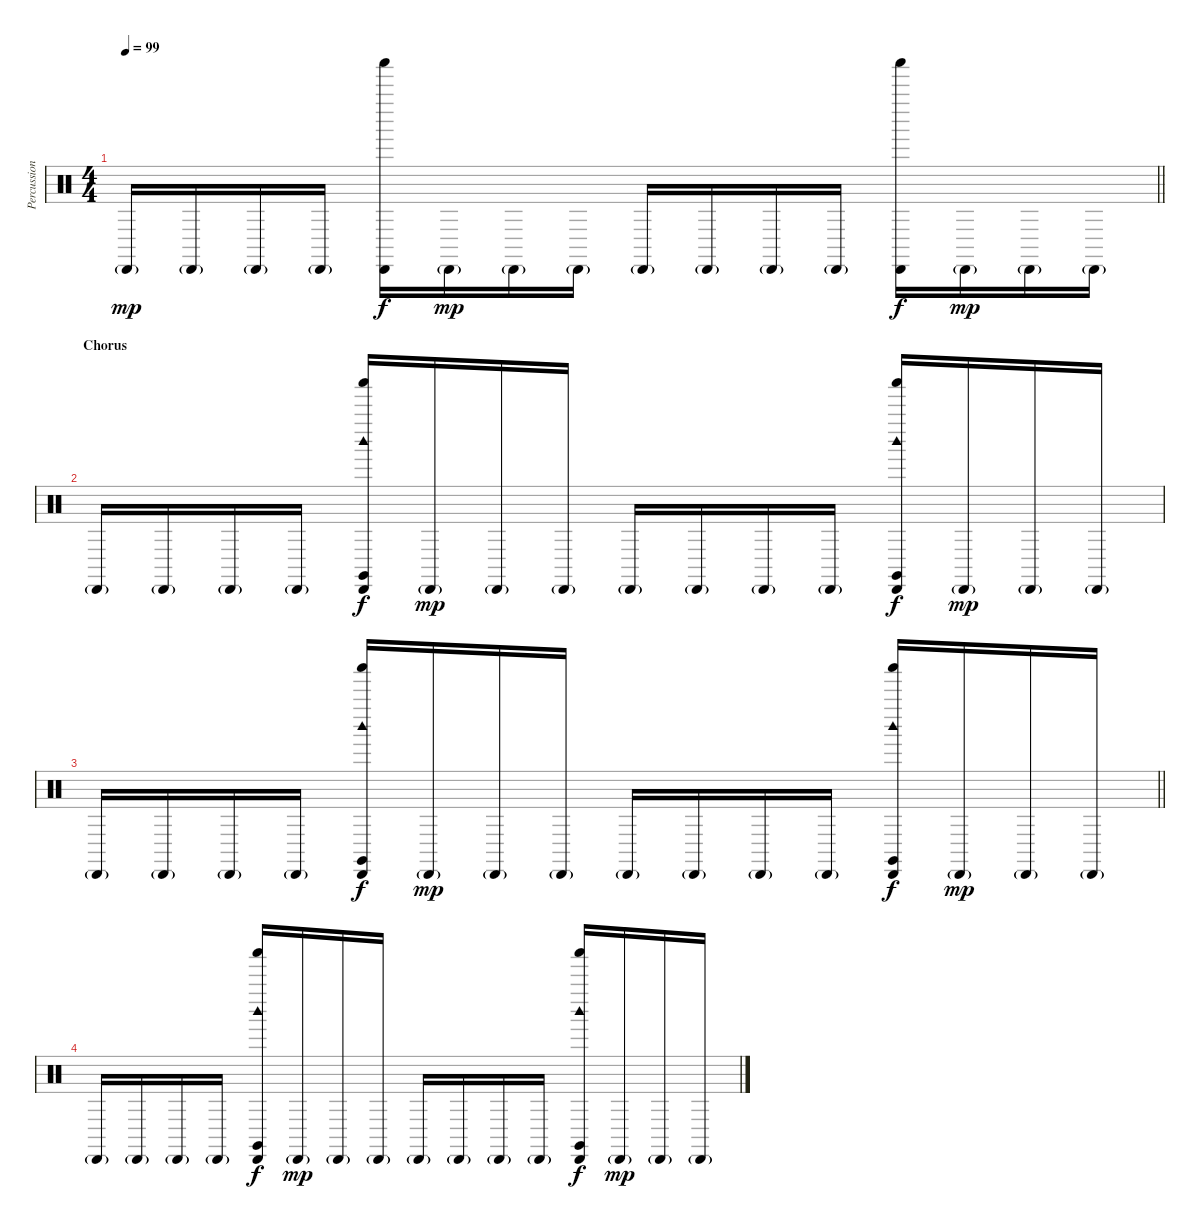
\track ("Percussion" "Percussion") {instrument percussion}
\staff {score}
\articulation defaults
\ts (4 4)
\tempo 99
\clef neutral
\barLineRight lightlight
\ks c "Cabasa (hit)"{g}.16{dy mp} "Cabasa (hit)"{g}.16 "Cabasa (hit)"{g}.16 "Cabasa (hit)"{g}.16
("Cabasa (hit)" "Shaker (hit)").16{dy f} "Cabasa (hit)"{g}.16{dy mp} "Cabasa (hit)"{g}.16 "Cabasa (hit)"{g}.16 "Cabasa (hit)"{g}.16 "Cabasa (hit)"{g}.16 "Cabasa (hit)"{g}.16 "Cabasa (hit)"{g}.16 ("Cabasa (hit)" "Shaker (hit)").16{dy f} "Cabasa (hit)"{g}.16{dy mp} "Cabasa (hit)"{g}.16 "Cabasa (hit)"{g}.16 |
\section ("" "Chorus")
"Cabasa (hit)"{g}.16 "Cabasa (hit)"{g}.16 "Cabasa (hit)"{g}.16 "Cabasa (hit)"{g}.16 ("Cabasa (hit)" "Shaker (hit)" "Claves (hit)" "Woodblock high (hit)").16{dy f} "Cabasa (hit)"{g}.16{dy mp} "Cabasa (hit)"{g}.16 "Cabasa (hit)"{g}.16 "Cabasa (hit)"{g}.16 "Cabasa (hit)"{g}.16 "Cabasa (hit)"{g}.16 "Cabasa (hit)"{g}.16 ("Cabasa (hit)" "Shaker (hit)" "Claves (hit)" "Woodblock high (hit)").16{dy f} "Cabasa (hit)"{g}.16{dy mp} "Cabasa (hit)"{g}.16 "Cabasa (hit)"{g}.16 |
\barLineRight lightlight "Cabasa (hit)"{g}.16 "Cabasa (hit)"{g}.16 "Cabasa (hit)"{g}.16 "Cabasa (hit)"{g}.16
("Cabasa (hit)" "Shaker (hit)" "Claves (hit)" "Woodblock high (hit)").16{dy f} "Cabasa (hit)"{g}.16{dy mp} "Cabasa (hit)"{g}.16 "Cabasa (hit)"{g}.16 "Cabasa (hit)"{g}.16 "Cabasa (hit)"{g}.16 "Cabasa (hit)"{g}.16 "Cabasa (hit)"{g}.16 ("Cabasa (hit)" "Shaker (hit)" "Claves (hit)" "Woodblock high (hit)").16{dy f} "Cabasa (hit)"{g}.16{dy mp} "Cabasa (hit)"{g}.16 "Cabasa (hit)"{g}.16 |
"Cabasa (hit)"{g}.16 "Cabasa (hit)"{g}.16 "Cabasa (hit)"{g}.16 "Cabasa (hit)"{g}.16 ("Cabasa (hit)" "Shaker (hit)" "Claves (hit)" "Woodblock high (hit)").16{dy f} "Cabasa (hit)"{g}.16{dy mp} "Cabasa (hit)"{g}.16 "Cabasa (hit)"{g}.16 "Cabasa (hit)"{g}.16 "Cabasa (hit)"{g}.16 "Cabasa (hit)"{g}.16 "Cabasa (hit)"{g}.16 ("Cabasa (hit)" "Shaker (hit)" "Claves (hit)" "Woodblock high (hit)").16{dy f} "Cabasa (hit)"{g}.16{dy mp} "Cabasa (hit)"{g}.16 "Cabasa (hit)"{g}.16
